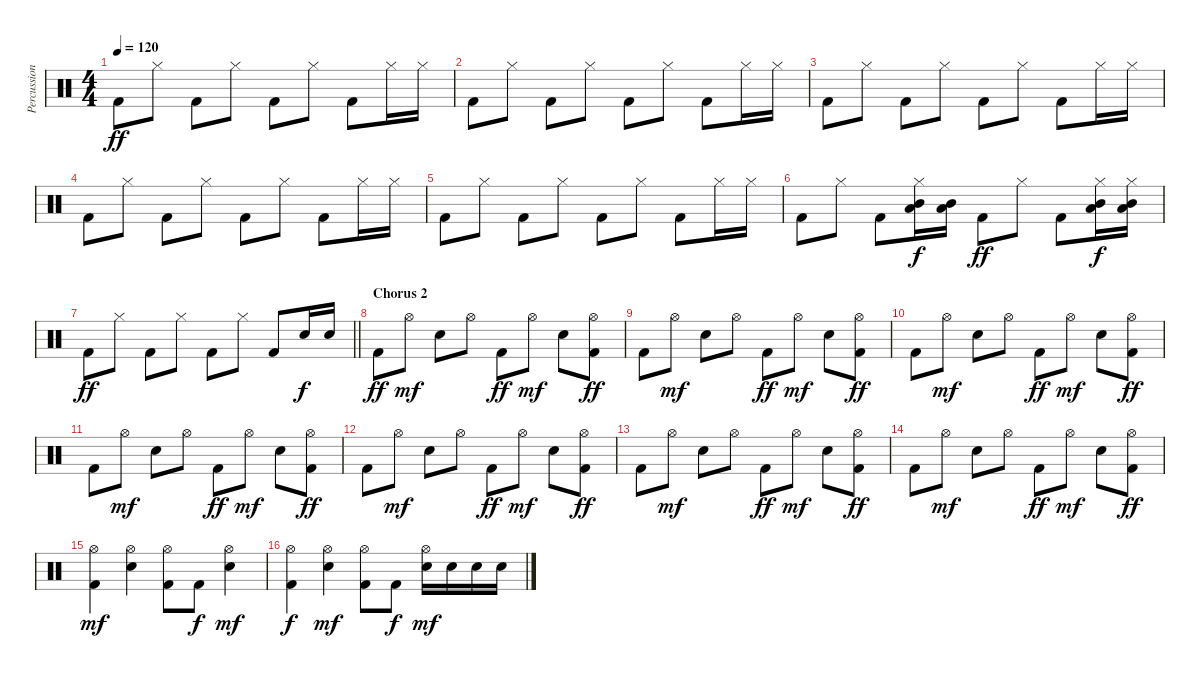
\track ("Percussion" "Percussion") {instrument percussion}
\staff {score}
\articulation defaults
\ts (4 4)
\tempo 120
\clef neutral
\ks c "Kick (hit) 2".8{dy ff} "Hi-Hat (closed)".8 "Kick (hit) 2".8 "Hi-Hat (closed)".8 "Kick (hit) 2".8 "Hi-Hat (closed)".8 "Kick (hit) 2".8 "Hi-Hat (closed)".16 "Hi-Hat (closed)".16
|
"Kick (hit) 2".8 "Hi-Hat (closed)".8 "Kick (hit) 2".8 "Hi-Hat (closed)".8 "Kick (hit) 2".8 "Hi-Hat (closed)".8 "Kick (hit) 2".8 "Hi-Hat (closed)".16 "Hi-Hat (closed)".16 |
"Kick (hit) 2".8 "Hi-Hat (closed)".8 "Kick (hit) 2".8 "Hi-Hat (closed)".8 "Kick (hit) 2".8 "Hi-Hat (closed)".8 "Kick (hit) 2".8 "Hi-Hat (closed)".16 "Hi-Hat (closed)".16 |
"Kick (hit) 2".8 "Hi-Hat (closed)".8 "Kick (hit) 2".8 "Hi-Hat (closed)".8 "Kick (hit) 2".8 "Hi-Hat (closed)".8 "Kick (hit) 2".8 "Hi-Hat (closed)".16 "Hi-Hat (closed)".16 |
"Kick (hit) 2".8 "Hi-Hat (closed)".8 "Kick (hit) 2".8 "Hi-Hat (closed)".8 "Kick (hit) 2".8 "Hi-Hat (closed)".8 "Kick (hit) 2".8 "Hi-Hat (closed)".16 "Hi-Hat (closed)".16 |
"Kick (hit) 2".8 "Hi-Hat (closed)".8 "Kick (hit) 2".8 ("Hi-Hat (closed)" "Mid Tom (hit)" "Low Tom (hit)").16{dy f} ("Mid Tom (hit)" "Low Tom (hit)").16 "Kick (hit) 2".8{dy ff} "Hi-Hat (closed)".8 "Kick (hit) 2".8 ("Hi-Hat (closed)" "Mid Tom (hit)" "Low Tom (hit)").16{dy f} ("Hi-Hat (closed)" "Mid Tom (hit)" "Low Tom (hit)").16 |
\barLineRight lightlight "Kick (hit) 2".8{dy ff} "Hi-Hat (closed)".8 "Kick (hit) 2".8 "Hi-Hat (closed)".8 "Kick (hit) 2".8 "Hi-Hat (closed)".8 "Kick (hit) 2".8 "Electric Snare (hit)".16{dy f} "Electric Snare (hit)".16
|
\section ("" "Chorus 2")
"Kick (hit) 2".8{dy ff} "Hi-Hat (open)".8{dy mf} "Electric Snare (hit)".8 "Hi-Hat (open)".8 "Kick (hit) 2".8{dy ff} "Hi-Hat (open)".8{dy mf} "Electric Snare (hit)".8 ("Hi-Hat (open)" "Kick (hit) 2").8{dy ff} |
"Kick (hit) 2".8 "Hi-Hat (open)".8{dy mf} "Electric Snare (hit)".8 "Hi-Hat (open)".8 "Kick (hit) 2".8{dy ff} "Hi-Hat (open)".8{dy mf} "Electric Snare (hit)".8 ("Hi-Hat (open)" "Kick (hit) 2").8{dy ff} |
"Kick (hit) 2".8 "Hi-Hat (open)".8{dy mf} "Electric Snare (hit)".8 "Hi-Hat (open)".8 "Kick (hit) 2".8{dy ff} "Hi-Hat (open)".8{dy mf} "Electric Snare (hit)".8 ("Hi-Hat (open)" "Kick (hit) 2").8{dy ff} |
"Kick (hit) 2".8 "Hi-Hat (open)".8{dy mf} "Electric Snare (hit)".8 "Hi-Hat (open)".8 "Kick (hit) 2".8{dy ff} "Hi-Hat (open)".8{dy mf} "Electric Snare (hit)".8 ("Hi-Hat (open)" "Kick (hit) 2").8{dy ff} |
"Kick (hit) 2".8 "Hi-Hat (open)".8{dy mf} "Electric Snare (hit)".8 "Hi-Hat (open)".8 "Kick (hit) 2".8{dy ff} "Hi-Hat (open)".8{dy mf} "Electric Snare (hit)".8 ("Hi-Hat (open)" "Kick (hit) 2").8{dy ff} |
"Kick (hit) 2".8 "Hi-Hat (open)".8{dy mf} "Electric Snare (hit)".8 "Hi-Hat (open)".8 "Kick (hit) 2".8{dy ff} "Hi-Hat (open)".8{dy mf} "Electric Snare (hit)".8 ("Hi-Hat (open)" "Kick (hit) 2").8{dy ff} |
"Kick (hit) 2".8 "Hi-Hat (open)".8{dy mf} "Electric Snare (hit)".8 "Hi-Hat (open)".8 "Kick (hit) 2".8{dy ff} "Hi-Hat (open)".8{dy mf} "Electric Snare (hit)".8 ("Hi-Hat (open)" "Kick (hit) 2").8{dy ff} |
("Hi-Hat (open)" "Kick (hit) 2").4{dy mf} ("Hi-Hat (open)" "Electric Snare (hit)").4 ("Hi-Hat (open)" "Kick (hit) 2").8 "Kick (hit) 2".8{dy f} ("Hi-Hat (open)" "Electric Snare (hit)").4{dy mf} |
("Hi-Hat (open)" "Kick (hit) 2").4{dy f} ("Hi-Hat (open)" "Electric Snare (hit)").4{dy mf} ("Hi-Hat (open)" "Kick (hit) 2").8 "Kick (hit) 2".8{dy f} ("Hi-Hat (open)" "Electric Snare (hit)").16{dy mf} "Electric Snare (hit)".16 "Electric Snare (hit)".16 "Electric Snare (hit)".16
